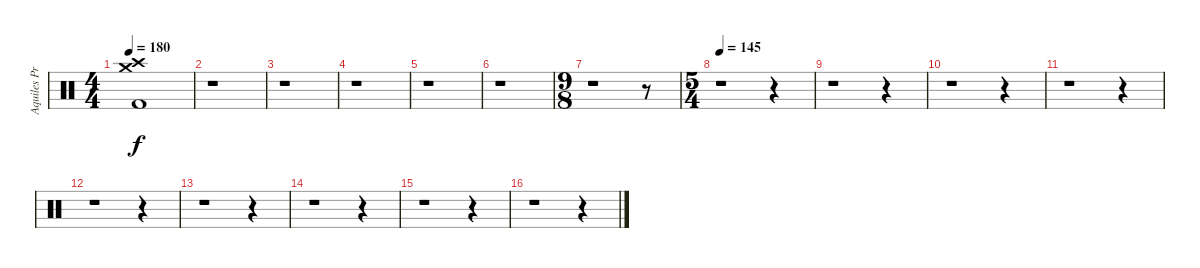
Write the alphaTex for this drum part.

\track ("Aquiles Priester" "Aquiles Pr") {instrument percussion}
\staff {score}
\articulation defaults
\ts (4 4)
\tempo 180
\clef neutral
\ks c
("Crash high (hit)" "Crash medium (hit)" "Kick (hit) 2").1{dy f} |
r.1 |
r.1 |
r.1 |
r.1 |
r.1 |
\ts (9 8)
r.1 r.8 |
\ts (5 4)
\tempo 145
r.1 r.4 |
r.1 r.4 |
r.1 r.4 |
r.1 r.4 |
r.1 r.4 |
r.1 r.4 |
r.1 r.4 |
r.1 r.4 |
r.1 r.4
